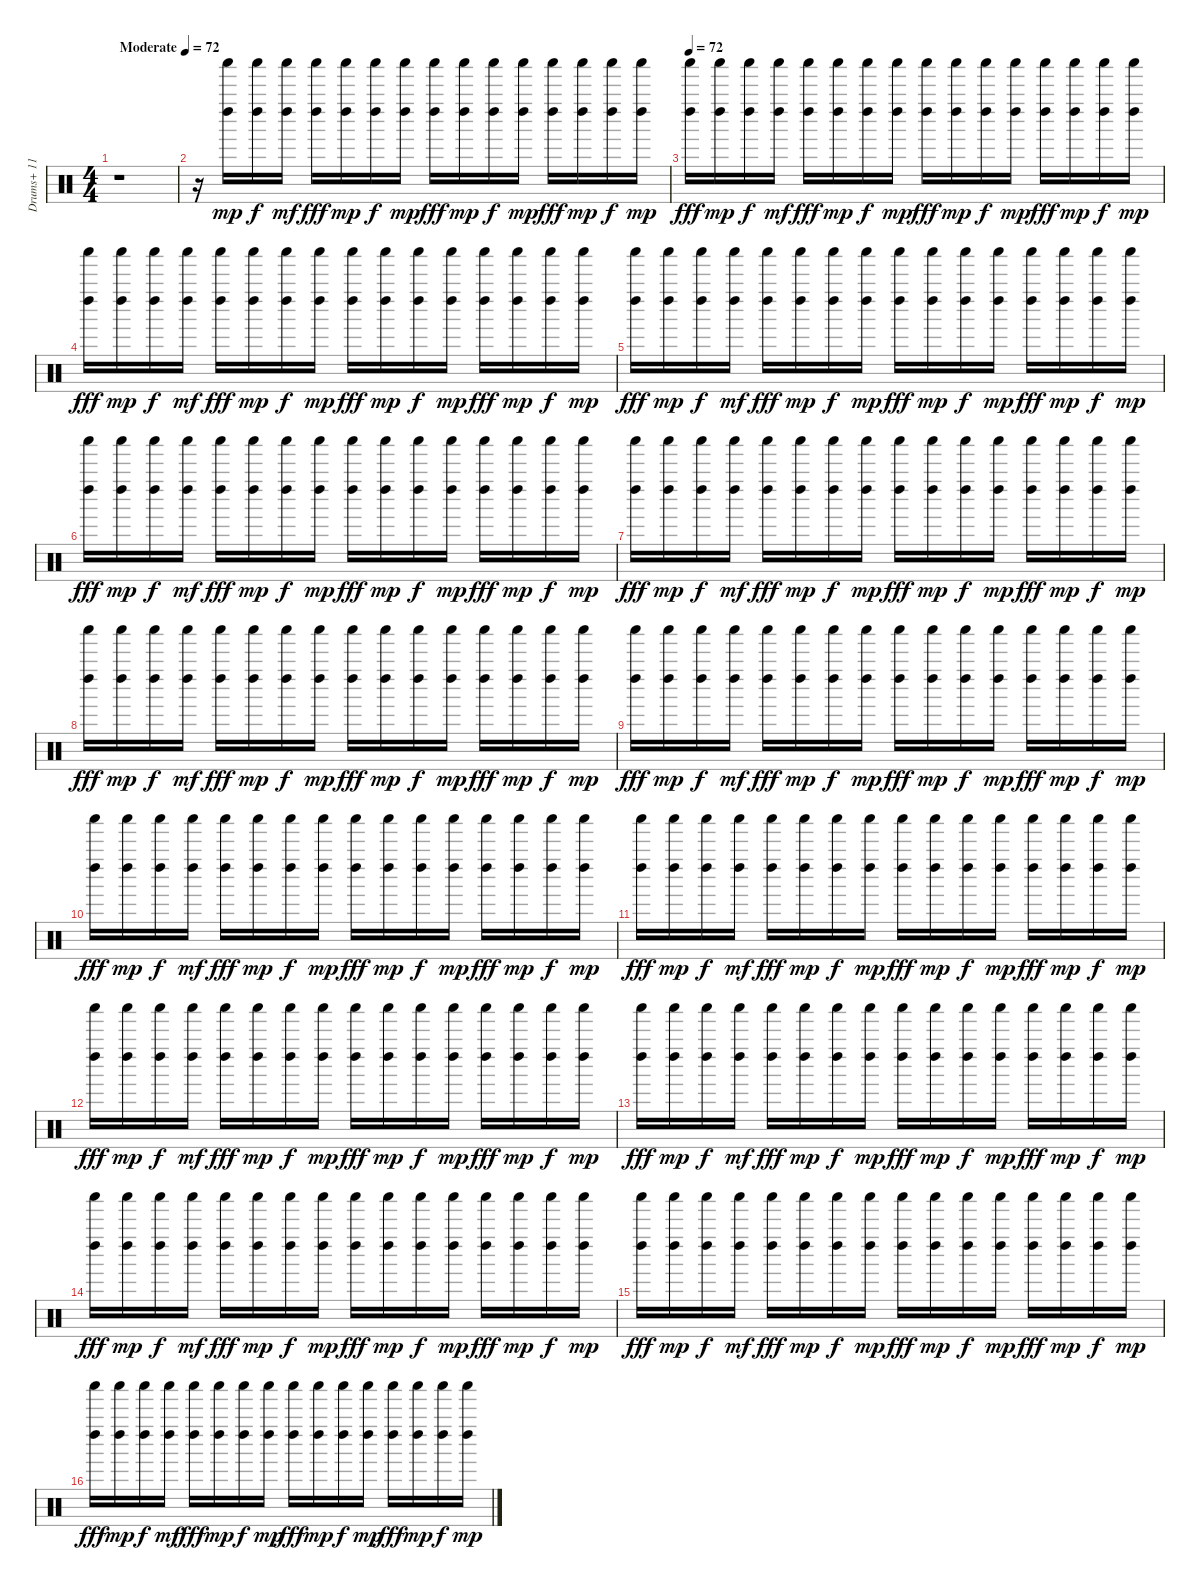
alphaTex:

\track ("Drums+ 11" "Drums+ 11") {instrument percussion}
\staff {score}
\articulation defaults
\ts (4 4)
\tempo (72 "Moderate")
\clef neutral
\ks c
r.1{dy mp} |
r.16 ("Shaker (hit)" "Left Maraca (hit)").16 ("Shaker (hit)" "Left Maraca (hit)").16{dy f} ("Shaker (hit)" "Left Maraca (hit)").16{dy mf} ("Shaker (hit)" "Left Maraca (hit)").16{dy fff} ("Shaker (hit)" "Left Maraca (hit)").16{dy mp} ("Shaker (hit)" "Left Maraca (hit)").16{dy f} ("Shaker (hit)" "Left Maraca (hit)").16{dy mp} ("Shaker (hit)" "Left Maraca (hit)").16{dy fff} ("Shaker (hit)" "Left Maraca (hit)").16{dy mp} ("Shaker (hit)" "Left Maraca (hit)").16{dy f} ("Shaker (hit)" "Left Maraca (hit)").16{dy mp} ("Shaker (hit)" "Left Maraca (hit)").16{dy fff} ("Shaker (hit)" "Left Maraca (hit)").16{dy mp} ("Shaker (hit)" "Left Maraca (hit)").16{dy f} ("Shaker (hit)" "Left Maraca (hit)").16{dy mp} |
\tempo 72
("Shaker (hit)" "Left Maraca (hit)").16{dy fff} ("Shaker (hit)" "Left Maraca (hit)").16{dy mp} ("Shaker (hit)" "Left Maraca (hit)").16{dy f} ("Shaker (hit)" "Left Maraca (hit)").16{dy mf} ("Shaker (hit)" "Left Maraca (hit)").16{dy fff} ("Shaker (hit)" "Left Maraca (hit)").16{dy mp} ("Shaker (hit)" "Left Maraca (hit)").16{dy f} ("Shaker (hit)" "Left Maraca (hit)").16{dy mp} ("Shaker (hit)" "Left Maraca (hit)").16{dy fff} ("Shaker (hit)" "Left Maraca (hit)").16{dy mp} ("Shaker (hit)" "Left Maraca (hit)").16{dy f} ("Shaker (hit)" "Left Maraca (hit)").16{dy mp} ("Shaker (hit)" "Left Maraca (hit)").16{dy fff} ("Shaker (hit)" "Left Maraca (hit)").16{dy mp} ("Shaker (hit)" "Left Maraca (hit)").16{dy f} ("Shaker (hit)" "Left Maraca (hit)").16{dy mp} |
("Shaker (hit)" "Left Maraca (hit)").16{dy fff} ("Shaker (hit)" "Left Maraca (hit)").16{dy mp} ("Shaker (hit)" "Left Maraca (hit)").16{dy f} ("Shaker (hit)" "Left Maraca (hit)").16{dy mf} ("Shaker (hit)" "Left Maraca (hit)").16{dy fff} ("Shaker (hit)" "Left Maraca (hit)").16{dy mp} ("Shaker (hit)" "Left Maraca (hit)").16{dy f} ("Shaker (hit)" "Left Maraca (hit)").16{dy mp} ("Shaker (hit)" "Left Maraca (hit)").16{dy fff} ("Shaker (hit)" "Left Maraca (hit)").16{dy mp} ("Shaker (hit)" "Left Maraca (hit)").16{dy f} ("Shaker (hit)" "Left Maraca (hit)").16{dy mp} ("Shaker (hit)" "Left Maraca (hit)").16{dy fff} ("Shaker (hit)" "Left Maraca (hit)").16{dy mp} ("Shaker (hit)" "Left Maraca (hit)").16{dy f} ("Shaker (hit)" "Left Maraca (hit)").16{dy mp} |
("Shaker (hit)" "Left Maraca (hit)").16{dy fff} ("Shaker (hit)" "Left Maraca (hit)").16{dy mp} ("Shaker (hit)" "Left Maraca (hit)").16{dy f} ("Shaker (hit)" "Left Maraca (hit)").16{dy mf} ("Shaker (hit)" "Left Maraca (hit)").16{dy fff} ("Shaker (hit)" "Left Maraca (hit)").16{dy mp} ("Shaker (hit)" "Left Maraca (hit)").16{dy f} ("Shaker (hit)" "Left Maraca (hit)").16{dy mp} ("Shaker (hit)" "Left Maraca (hit)").16{dy fff} ("Shaker (hit)" "Left Maraca (hit)").16{dy mp} ("Shaker (hit)" "Left Maraca (hit)").16{dy f} ("Shaker (hit)" "Left Maraca (hit)").16{dy mp} ("Shaker (hit)" "Left Maraca (hit)").16{dy fff} ("Shaker (hit)" "Left Maraca (hit)").16{dy mp} ("Shaker (hit)" "Left Maraca (hit)").16{dy f} ("Shaker (hit)" "Left Maraca (hit)").16{dy mp} |
("Shaker (hit)" "Left Maraca (hit)").16{dy fff} ("Shaker (hit)" "Left Maraca (hit)").16{dy mp} ("Shaker (hit)" "Left Maraca (hit)").16{dy f} ("Shaker (hit)" "Left Maraca (hit)").16{dy mf} ("Shaker (hit)" "Left Maraca (hit)").16{dy fff} ("Shaker (hit)" "Left Maraca (hit)").16{dy mp} ("Shaker (hit)" "Left Maraca (hit)").16{dy f} ("Shaker (hit)" "Left Maraca (hit)").16{dy mp} ("Shaker (hit)" "Left Maraca (hit)").16{dy fff} ("Shaker (hit)" "Left Maraca (hit)").16{dy mp} ("Shaker (hit)" "Left Maraca (hit)").16{dy f} ("Shaker (hit)" "Left Maraca (hit)").16{dy mp} ("Shaker (hit)" "Left Maraca (hit)").16{dy fff} ("Shaker (hit)" "Left Maraca (hit)").16{dy mp} ("Shaker (hit)" "Left Maraca (hit)").16{dy f} ("Shaker (hit)" "Left Maraca (hit)").16{dy mp} |
("Shaker (hit)" "Left Maraca (hit)").16{dy fff} ("Shaker (hit)" "Left Maraca (hit)").16{dy mp} ("Shaker (hit)" "Left Maraca (hit)").16{dy f} ("Shaker (hit)" "Left Maraca (hit)").16{dy mf} ("Shaker (hit)" "Left Maraca (hit)").16{dy fff} ("Shaker (hit)" "Left Maraca (hit)").16{dy mp} ("Shaker (hit)" "Left Maraca (hit)").16{dy f} ("Shaker (hit)" "Left Maraca (hit)").16{dy mp} ("Shaker (hit)" "Left Maraca (hit)").16{dy fff} ("Shaker (hit)" "Left Maraca (hit)").16{dy mp} ("Shaker (hit)" "Left Maraca (hit)").16{dy f} ("Shaker (hit)" "Left Maraca (hit)").16{dy mp} ("Shaker (hit)" "Left Maraca (hit)").16{dy fff} ("Shaker (hit)" "Left Maraca (hit)").16{dy mp} ("Shaker (hit)" "Left Maraca (hit)").16{dy f} ("Shaker (hit)" "Left Maraca (hit)").16{dy mp} |
("Shaker (hit)" "Left Maraca (hit)").16{dy fff} ("Shaker (hit)" "Left Maraca (hit)").16{dy mp} ("Shaker (hit)" "Left Maraca (hit)").16{dy f} ("Shaker (hit)" "Left Maraca (hit)").16{dy mf} ("Shaker (hit)" "Left Maraca (hit)").16{dy fff} ("Shaker (hit)" "Left Maraca (hit)").16{dy mp} ("Shaker (hit)" "Left Maraca (hit)").16{dy f} ("Shaker (hit)" "Left Maraca (hit)").16{dy mp} ("Shaker (hit)" "Left Maraca (hit)").16{dy fff} ("Shaker (hit)" "Left Maraca (hit)").16{dy mp} ("Shaker (hit)" "Left Maraca (hit)").16{dy f} ("Shaker (hit)" "Left Maraca (hit)").16{dy mp} ("Shaker (hit)" "Left Maraca (hit)").16{dy fff} ("Shaker (hit)" "Left Maraca (hit)").16{dy mp} ("Shaker (hit)" "Left Maraca (hit)").16{dy f} ("Shaker (hit)" "Left Maraca (hit)").16{dy mp} |
("Shaker (hit)" "Left Maraca (hit)").16{dy fff} ("Shaker (hit)" "Left Maraca (hit)").16{dy mp} ("Shaker (hit)" "Left Maraca (hit)").16{dy f} ("Shaker (hit)" "Left Maraca (hit)").16{dy mf} ("Shaker (hit)" "Left Maraca (hit)").16{dy fff} ("Shaker (hit)" "Left Maraca (hit)").16{dy mp} ("Shaker (hit)" "Left Maraca (hit)").16{dy f} ("Shaker (hit)" "Left Maraca (hit)").16{dy mp} ("Shaker (hit)" "Left Maraca (hit)").16{dy fff} ("Shaker (hit)" "Left Maraca (hit)").16{dy mp} ("Shaker (hit)" "Left Maraca (hit)").16{dy f} ("Shaker (hit)" "Left Maraca (hit)").16{dy mp} ("Shaker (hit)" "Left Maraca (hit)").16{dy fff} ("Shaker (hit)" "Left Maraca (hit)").16{dy mp} ("Shaker (hit)" "Left Maraca (hit)").16{dy f} ("Shaker (hit)" "Left Maraca (hit)").16{dy mp} |
("Shaker (hit)" "Left Maraca (hit)").16{dy fff} ("Shaker (hit)" "Left Maraca (hit)").16{dy mp} ("Shaker (hit)" "Left Maraca (hit)").16{dy f} ("Shaker (hit)" "Left Maraca (hit)").16{dy mf} ("Shaker (hit)" "Left Maraca (hit)").16{dy fff} ("Shaker (hit)" "Left Maraca (hit)").16{dy mp} ("Shaker (hit)" "Left Maraca (hit)").16{dy f} ("Shaker (hit)" "Left Maraca (hit)").16{dy mp} ("Shaker (hit)" "Left Maraca (hit)").16{dy fff} ("Shaker (hit)" "Left Maraca (hit)").16{dy mp} ("Shaker (hit)" "Left Maraca (hit)").16{dy f} ("Shaker (hit)" "Left Maraca (hit)").16{dy mp} ("Shaker (hit)" "Left Maraca (hit)").16{dy fff} ("Shaker (hit)" "Left Maraca (hit)").16{dy mp} ("Shaker (hit)" "Left Maraca (hit)").16{dy f} ("Shaker (hit)" "Left Maraca (hit)").16{dy mp} |
("Shaker (hit)" "Left Maraca (hit)").16{dy fff} ("Shaker (hit)" "Left Maraca (hit)").16{dy mp} ("Shaker (hit)" "Left Maraca (hit)").16{dy f} ("Shaker (hit)" "Left Maraca (hit)").16{dy mf} ("Shaker (hit)" "Left Maraca (hit)").16{dy fff} ("Shaker (hit)" "Left Maraca (hit)").16{dy mp} ("Shaker (hit)" "Left Maraca (hit)").16{dy f} ("Shaker (hit)" "Left Maraca (hit)").16{dy mp} ("Shaker (hit)" "Left Maraca (hit)").16{dy fff} ("Shaker (hit)" "Left Maraca (hit)").16{dy mp} ("Shaker (hit)" "Left Maraca (hit)").16{dy f} ("Shaker (hit)" "Left Maraca (hit)").16{dy mp} ("Shaker (hit)" "Left Maraca (hit)").16{dy fff} ("Shaker (hit)" "Left Maraca (hit)").16{dy mp} ("Shaker (hit)" "Left Maraca (hit)").16{dy f} ("Shaker (hit)" "Left Maraca (hit)").16{dy mp} |
("Shaker (hit)" "Left Maraca (hit)").16{dy fff} ("Shaker (hit)" "Left Maraca (hit)").16{dy mp} ("Shaker (hit)" "Left Maraca (hit)").16{dy f} ("Shaker (hit)" "Left Maraca (hit)").16{dy mf} ("Shaker (hit)" "Left Maraca (hit)").16{dy fff} ("Shaker (hit)" "Left Maraca (hit)").16{dy mp} ("Shaker (hit)" "Left Maraca (hit)").16{dy f} ("Shaker (hit)" "Left Maraca (hit)").16{dy mp} ("Shaker (hit)" "Left Maraca (hit)").16{dy fff} ("Shaker (hit)" "Left Maraca (hit)").16{dy mp} ("Shaker (hit)" "Left Maraca (hit)").16{dy f} ("Shaker (hit)" "Left Maraca (hit)").16{dy mp} ("Shaker (hit)" "Left Maraca (hit)").16{dy fff} ("Shaker (hit)" "Left Maraca (hit)").16{dy mp} ("Shaker (hit)" "Left Maraca (hit)").16{dy f} ("Shaker (hit)" "Left Maraca (hit)").16{dy mp} |
("Shaker (hit)" "Left Maraca (hit)").16{dy fff} ("Shaker (hit)" "Left Maraca (hit)").16{dy mp} ("Shaker (hit)" "Left Maraca (hit)").16{dy f} ("Shaker (hit)" "Left Maraca (hit)").16{dy mf} ("Shaker (hit)" "Left Maraca (hit)").16{dy fff} ("Shaker (hit)" "Left Maraca (hit)").16{dy mp} ("Shaker (hit)" "Left Maraca (hit)").16{dy f} ("Shaker (hit)" "Left Maraca (hit)").16{dy mp} ("Shaker (hit)" "Left Maraca (hit)").16{dy fff} ("Shaker (hit)" "Left Maraca (hit)").16{dy mp} ("Shaker (hit)" "Left Maraca (hit)").16{dy f} ("Shaker (hit)" "Left Maraca (hit)").16{dy mp} ("Shaker (hit)" "Left Maraca (hit)").16{dy fff} ("Shaker (hit)" "Left Maraca (hit)").16{dy mp} ("Shaker (hit)" "Left Maraca (hit)").16{dy f} ("Shaker (hit)" "Left Maraca (hit)").16{dy mp} |
("Shaker (hit)" "Left Maraca (hit)").16{dy fff} ("Shaker (hit)" "Left Maraca (hit)").16{dy mp} ("Shaker (hit)" "Left Maraca (hit)").16{dy f} ("Shaker (hit)" "Left Maraca (hit)").16{dy mf} ("Shaker (hit)" "Left Maraca (hit)").16{dy fff} ("Shaker (hit)" "Left Maraca (hit)").16{dy mp} ("Shaker (hit)" "Left Maraca (hit)").16{dy f} ("Shaker (hit)" "Left Maraca (hit)").16{dy mp} ("Shaker (hit)" "Left Maraca (hit)").16{dy fff} ("Shaker (hit)" "Left Maraca (hit)").16{dy mp} ("Shaker (hit)" "Left Maraca (hit)").16{dy f} ("Shaker (hit)" "Left Maraca (hit)").16{dy mp} ("Shaker (hit)" "Left Maraca (hit)").16{dy fff} ("Shaker (hit)" "Left Maraca (hit)").16{dy mp} ("Shaker (hit)" "Left Maraca (hit)").16{dy f} ("Shaker (hit)" "Left Maraca (hit)").16{dy mp} |
("Shaker (hit)" "Left Maraca (hit)").16{dy fff} ("Shaker (hit)" "Left Maraca (hit)").16{dy mp} ("Shaker (hit)" "Left Maraca (hit)").16{dy f} ("Shaker (hit)" "Left Maraca (hit)").16{dy mf} ("Shaker (hit)" "Left Maraca (hit)").16{dy fff} ("Shaker (hit)" "Left Maraca (hit)").16{dy mp} ("Shaker (hit)" "Left Maraca (hit)").16{dy f} ("Shaker (hit)" "Left Maraca (hit)").16{dy mp} ("Shaker (hit)" "Left Maraca (hit)").16{dy fff} ("Shaker (hit)" "Left Maraca (hit)").16{dy mp} ("Shaker (hit)" "Left Maraca (hit)").16{dy f} ("Shaker (hit)" "Left Maraca (hit)").16{dy mp} ("Shaker (hit)" "Left Maraca (hit)").16{dy fff} ("Shaker (hit)" "Left Maraca (hit)").16{dy mp} ("Shaker (hit)" "Left Maraca (hit)").16{dy f} ("Shaker (hit)" "Left Maraca (hit)").16{dy mp} |
("Shaker (hit)" "Left Maraca (hit)").16{dy fff} ("Shaker (hit)" "Left Maraca (hit)").16{dy mp} ("Shaker (hit)" "Left Maraca (hit)").16{dy f} ("Shaker (hit)" "Left Maraca (hit)").16{dy mf} ("Shaker (hit)" "Left Maraca (hit)").16{dy fff} ("Shaker (hit)" "Left Maraca (hit)").16{dy mp} ("Shaker (hit)" "Left Maraca (hit)").16{dy f} ("Shaker (hit)" "Left Maraca (hit)").16{dy mp} ("Shaker (hit)" "Left Maraca (hit)").16{dy fff} ("Shaker (hit)" "Left Maraca (hit)").16{dy mp} ("Shaker (hit)" "Left Maraca (hit)").16{dy f} ("Shaker (hit)" "Left Maraca (hit)").16{dy mp} ("Shaker (hit)" "Left Maraca (hit)").16{dy fff} ("Shaker (hit)" "Left Maraca (hit)").16{dy mp} ("Shaker (hit)" "Left Maraca (hit)").16{dy f} ("Shaker (hit)" "Left Maraca (hit)").16{dy mp}
